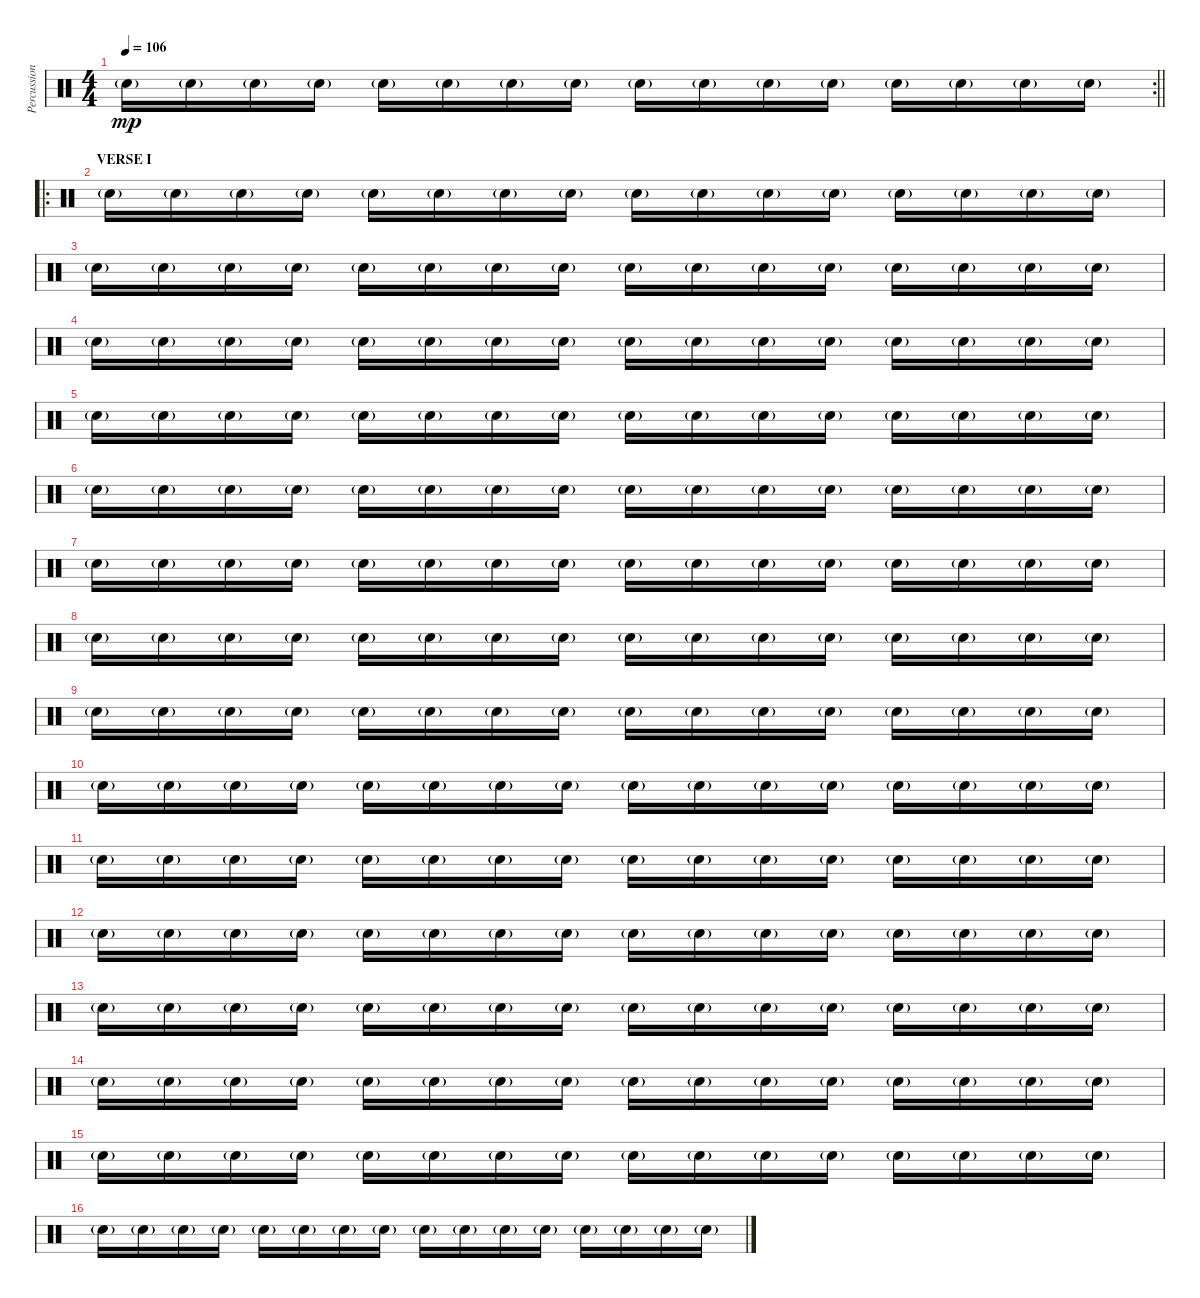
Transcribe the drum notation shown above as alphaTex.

\track ("Percussion" "Percussion") {instrument percussion}
\staff {score}
\articulation defaults
\rc 2
\ts (4 4)
\tempo 106
\clef neutral
\barLineRight lightlight
\ks c "Electric Snare (hit)"{g}.16{dy mp} "Electric Snare (hit)"{g}.16 "Electric Snare (hit)"{g}.16 "Electric Snare (hit)"{g}.16 "Electric Snare (hit)"{g}.16 "Electric Snare (hit)"{g}.16 "Electric Snare (hit)"{g}.16 "Electric Snare (hit)"{g}.16 "Electric Snare (hit)"{g}.16 "Electric Snare (hit)"{g}.16 "Electric Snare (hit)"{g}.16 "Electric Snare (hit)"{g}.16 "Electric Snare (hit)"{g}.16 "Electric Snare (hit)"{g}.16 "Electric Snare (hit)"{g}.16 "Electric Snare (hit)"{g}.16
|
\ro
\section ("" "VERSE I")
"Electric Snare (hit)"{g}.16 "Electric Snare (hit)"{g}.16 "Electric Snare (hit)"{g}.16 "Electric Snare (hit)"{g}.16 "Electric Snare (hit)"{g}.16 "Electric Snare (hit)"{g}.16 "Electric Snare (hit)"{g}.16 "Electric Snare (hit)"{g}.16 "Electric Snare (hit)"{g}.16 "Electric Snare (hit)"{g}.16 "Electric Snare (hit)"{g}.16 "Electric Snare (hit)"{g}.16 "Electric Snare (hit)"{g}.16 "Electric Snare (hit)"{g}.16 "Electric Snare (hit)"{g}.16 "Electric Snare (hit)"{g}.16 |
"Electric Snare (hit)"{g}.16 "Electric Snare (hit)"{g}.16 "Electric Snare (hit)"{g}.16 "Electric Snare (hit)"{g}.16 "Electric Snare (hit)"{g}.16 "Electric Snare (hit)"{g}.16 "Electric Snare (hit)"{g}.16 "Electric Snare (hit)"{g}.16 "Electric Snare (hit)"{g}.16 "Electric Snare (hit)"{g}.16 "Electric Snare (hit)"{g}.16 "Electric Snare (hit)"{g}.16 "Electric Snare (hit)"{g}.16 "Electric Snare (hit)"{g}.16 "Electric Snare (hit)"{g}.16 "Electric Snare (hit)"{g}.16 |
"Electric Snare (hit)"{g}.16 "Electric Snare (hit)"{g}.16 "Electric Snare (hit)"{g}.16 "Electric Snare (hit)"{g}.16 "Electric Snare (hit)"{g}.16 "Electric Snare (hit)"{g}.16 "Electric Snare (hit)"{g}.16 "Electric Snare (hit)"{g}.16 "Electric Snare (hit)"{g}.16 "Electric Snare (hit)"{g}.16 "Electric Snare (hit)"{g}.16 "Electric Snare (hit)"{g}.16 "Electric Snare (hit)"{g}.16 "Electric Snare (hit)"{g}.16 "Electric Snare (hit)"{g}.16 "Electric Snare (hit)"{g}.16 |
"Electric Snare (hit)"{g}.16 "Electric Snare (hit)"{g}.16 "Electric Snare (hit)"{g}.16 "Electric Snare (hit)"{g}.16 "Electric Snare (hit)"{g}.16 "Electric Snare (hit)"{g}.16 "Electric Snare (hit)"{g}.16 "Electric Snare (hit)"{g}.16 "Electric Snare (hit)"{g}.16 "Electric Snare (hit)"{g}.16 "Electric Snare (hit)"{g}.16 "Electric Snare (hit)"{g}.16 "Electric Snare (hit)"{g}.16 "Electric Snare (hit)"{g}.16 "Electric Snare (hit)"{g}.16 "Electric Snare (hit)"{g}.16 |
"Electric Snare (hit)"{g}.16 "Electric Snare (hit)"{g}.16 "Electric Snare (hit)"{g}.16 "Electric Snare (hit)"{g}.16 "Electric Snare (hit)"{g}.16 "Electric Snare (hit)"{g}.16 "Electric Snare (hit)"{g}.16 "Electric Snare (hit)"{g}.16 "Electric Snare (hit)"{g}.16 "Electric Snare (hit)"{g}.16 "Electric Snare (hit)"{g}.16 "Electric Snare (hit)"{g}.16 "Electric Snare (hit)"{g}.16 "Electric Snare (hit)"{g}.16 "Electric Snare (hit)"{g}.16 "Electric Snare (hit)"{g}.16 |
"Electric Snare (hit)"{g}.16 "Electric Snare (hit)"{g}.16 "Electric Snare (hit)"{g}.16 "Electric Snare (hit)"{g}.16 "Electric Snare (hit)"{g}.16 "Electric Snare (hit)"{g}.16 "Electric Snare (hit)"{g}.16 "Electric Snare (hit)"{g}.16 "Electric Snare (hit)"{g}.16 "Electric Snare (hit)"{g}.16 "Electric Snare (hit)"{g}.16 "Electric Snare (hit)"{g}.16 "Electric Snare (hit)"{g}.16 "Electric Snare (hit)"{g}.16 "Electric Snare (hit)"{g}.16 "Electric Snare (hit)"{g}.16 |
"Electric Snare (hit)"{g}.16 "Electric Snare (hit)"{g}.16 "Electric Snare (hit)"{g}.16 "Electric Snare (hit)"{g}.16 "Electric Snare (hit)"{g}.16 "Electric Snare (hit)"{g}.16 "Electric Snare (hit)"{g}.16 "Electric Snare (hit)"{g}.16 "Electric Snare (hit)"{g}.16 "Electric Snare (hit)"{g}.16 "Electric Snare (hit)"{g}.16 "Electric Snare (hit)"{g}.16 "Electric Snare (hit)"{g}.16 "Electric Snare (hit)"{g}.16 "Electric Snare (hit)"{g}.16 "Electric Snare (hit)"{g}.16 |
"Electric Snare (hit)"{g}.16 "Electric Snare (hit)"{g}.16 "Electric Snare (hit)"{g}.16 "Electric Snare (hit)"{g}.16 "Electric Snare (hit)"{g}.16 "Electric Snare (hit)"{g}.16 "Electric Snare (hit)"{g}.16 "Electric Snare (hit)"{g}.16 "Electric Snare (hit)"{g}.16 "Electric Snare (hit)"{g}.16 "Electric Snare (hit)"{g}.16 "Electric Snare (hit)"{g}.16 "Electric Snare (hit)"{g}.16 "Electric Snare (hit)"{g}.16 "Electric Snare (hit)"{g}.16 "Electric Snare (hit)"{g}.16 |
"Electric Snare (hit)"{g}.16 "Electric Snare (hit)"{g}.16 "Electric Snare (hit)"{g}.16 "Electric Snare (hit)"{g}.16 "Electric Snare (hit)"{g}.16 "Electric Snare (hit)"{g}.16 "Electric Snare (hit)"{g}.16 "Electric Snare (hit)"{g}.16 "Electric Snare (hit)"{g}.16 "Electric Snare (hit)"{g}.16 "Electric Snare (hit)"{g}.16 "Electric Snare (hit)"{g}.16 "Electric Snare (hit)"{g}.16 "Electric Snare (hit)"{g}.16 "Electric Snare (hit)"{g}.16 "Electric Snare (hit)"{g}.16 |
"Electric Snare (hit)"{g}.16 "Electric Snare (hit)"{g}.16 "Electric Snare (hit)"{g}.16 "Electric Snare (hit)"{g}.16 "Electric Snare (hit)"{g}.16 "Electric Snare (hit)"{g}.16 "Electric Snare (hit)"{g}.16 "Electric Snare (hit)"{g}.16 "Electric Snare (hit)"{g}.16 "Electric Snare (hit)"{g}.16 "Electric Snare (hit)"{g}.16 "Electric Snare (hit)"{g}.16 "Electric Snare (hit)"{g}.16 "Electric Snare (hit)"{g}.16 "Electric Snare (hit)"{g}.16 "Electric Snare (hit)"{g}.16 |
"Electric Snare (hit)"{g}.16 "Electric Snare (hit)"{g}.16 "Electric Snare (hit)"{g}.16 "Electric Snare (hit)"{g}.16 "Electric Snare (hit)"{g}.16 "Electric Snare (hit)"{g}.16 "Electric Snare (hit)"{g}.16 "Electric Snare (hit)"{g}.16 "Electric Snare (hit)"{g}.16 "Electric Snare (hit)"{g}.16 "Electric Snare (hit)"{g}.16 "Electric Snare (hit)"{g}.16 "Electric Snare (hit)"{g}.16 "Electric Snare (hit)"{g}.16 "Electric Snare (hit)"{g}.16 "Electric Snare (hit)"{g}.16 |
"Electric Snare (hit)"{g}.16 "Electric Snare (hit)"{g}.16 "Electric Snare (hit)"{g}.16 "Electric Snare (hit)"{g}.16 "Electric Snare (hit)"{g}.16 "Electric Snare (hit)"{g}.16 "Electric Snare (hit)"{g}.16 "Electric Snare (hit)"{g}.16 "Electric Snare (hit)"{g}.16 "Electric Snare (hit)"{g}.16 "Electric Snare (hit)"{g}.16 "Electric Snare (hit)"{g}.16 "Electric Snare (hit)"{g}.16 "Electric Snare (hit)"{g}.16 "Electric Snare (hit)"{g}.16 "Electric Snare (hit)"{g}.16 |
"Electric Snare (hit)"{g}.16 "Electric Snare (hit)"{g}.16 "Electric Snare (hit)"{g}.16 "Electric Snare (hit)"{g}.16 "Electric Snare (hit)"{g}.16 "Electric Snare (hit)"{g}.16 "Electric Snare (hit)"{g}.16 "Electric Snare (hit)"{g}.16 "Electric Snare (hit)"{g}.16 "Electric Snare (hit)"{g}.16 "Electric Snare (hit)"{g}.16 "Electric Snare (hit)"{g}.16 "Electric Snare (hit)"{g}.16 "Electric Snare (hit)"{g}.16 "Electric Snare (hit)"{g}.16 "Electric Snare (hit)"{g}.16 |
"Electric Snare (hit)"{g}.16 "Electric Snare (hit)"{g}.16 "Electric Snare (hit)"{g}.16 "Electric Snare (hit)"{g}.16 "Electric Snare (hit)"{g}.16 "Electric Snare (hit)"{g}.16 "Electric Snare (hit)"{g}.16 "Electric Snare (hit)"{g}.16 "Electric Snare (hit)"{g}.16 "Electric Snare (hit)"{g}.16 "Electric Snare (hit)"{g}.16 "Electric Snare (hit)"{g}.16 "Electric Snare (hit)"{g}.16 "Electric Snare (hit)"{g}.16 "Electric Snare (hit)"{g}.16 "Electric Snare (hit)"{g}.16 |
"Electric Snare (hit)"{g}.16 "Electric Snare (hit)"{g}.16 "Electric Snare (hit)"{g}.16 "Electric Snare (hit)"{g}.16 "Electric Snare (hit)"{g}.16 "Electric Snare (hit)"{g}.16 "Electric Snare (hit)"{g}.16 "Electric Snare (hit)"{g}.16 "Electric Snare (hit)"{g}.16 "Electric Snare (hit)"{g}.16 "Electric Snare (hit)"{g}.16 "Electric Snare (hit)"{g}.16 "Electric Snare (hit)"{g}.16 "Electric Snare (hit)"{g}.16 "Electric Snare (hit)"{g}.16 "Electric Snare (hit)"{g}.16
